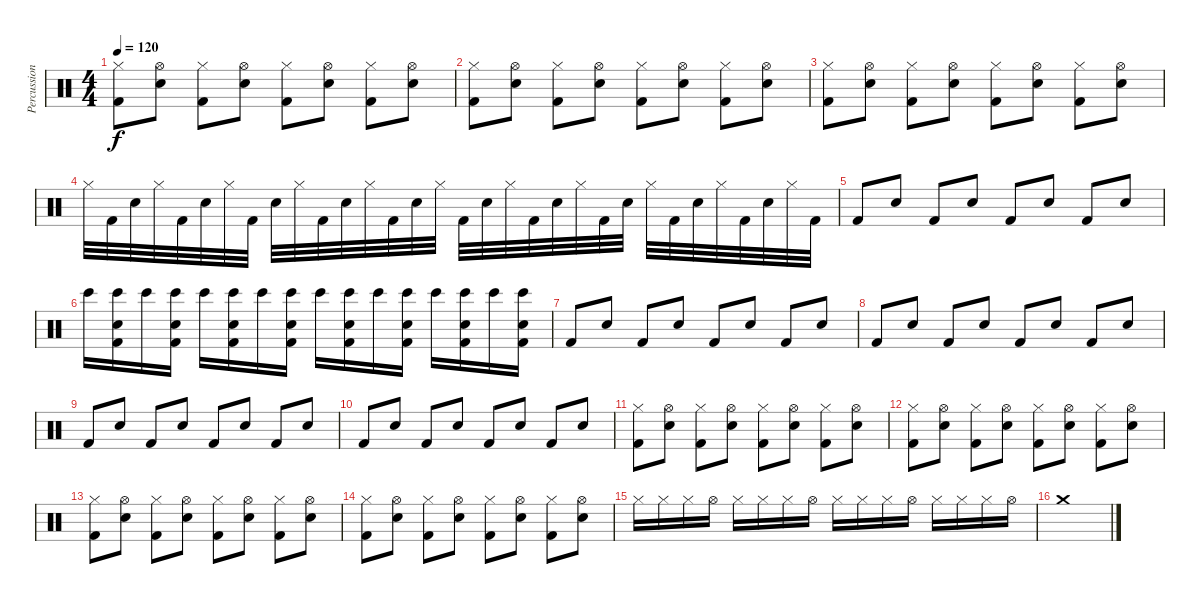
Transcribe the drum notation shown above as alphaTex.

\track ("Percussion" "Percussion") {instrument percussion}
\staff {score}
\articulation defaults
\ts (4 4)
\tempo 120
\clef neutral
\ks c
("Hi-Hat (closed)" "Kick (hit) 2").8{dy f} ("Hi-Hat (open)" "Snare (hit) 2").8 ("Hi-Hat (closed)" "Kick (hit) 2").8 ("Hi-Hat (open)" "Snare (hit) 2").8 ("Hi-Hat (closed)" "Kick (hit) 2").8 ("Hi-Hat (open)" "Snare (hit) 2").8 ("Hi-Hat (closed)" "Kick (hit) 2").8 ("Hi-Hat (open)" "Snare (hit) 2").8 |
("Hi-Hat (closed)" "Kick (hit) 2").8 ("Hi-Hat (open)" "Snare (hit) 2").8 ("Hi-Hat (closed)" "Kick (hit) 2").8 ("Hi-Hat (open)" "Snare (hit) 2").8 ("Hi-Hat (closed)" "Kick (hit) 2").8 ("Hi-Hat (open)" "Snare (hit) 2").8 ("Hi-Hat (closed)" "Kick (hit) 2").8 ("Hi-Hat (open)" "Snare (hit) 2").8 |
("Hi-Hat (closed)" "Kick (hit) 2").8 ("Hi-Hat (open)" "Snare (hit) 2").8 ("Hi-Hat (closed)" "Kick (hit) 2").8 ("Hi-Hat (open)" "Snare (hit) 2").8 ("Hi-Hat (closed)" "Kick (hit) 2").8 ("Hi-Hat (open)" "Snare (hit) 2").8 ("Hi-Hat (closed)" "Kick (hit) 2").8 ("Hi-Hat (open)" "Snare (hit) 2").8 |
"Hi-Hat (closed)".32 "Kick (hit) 2".32 "Snare (hit) 2".32 "Hi-Hat (closed)".32 "Kick (hit) 2".32 "Snare (hit) 2".32 "Hi-Hat (closed)".32 "Kick (hit) 2".32 "Snare (hit) 2".32 "Hi-Hat (closed)".32 "Kick (hit) 2".32 "Snare (hit) 2".32 "Hi-Hat (closed)".32 "Kick (hit) 2".32 "Snare (hit) 2".32 "Hi-Hat (closed)".32 "Kick (hit) 2".32 "Snare (hit) 2".32 "Hi-Hat (closed)".32 "Kick (hit) 2".32 "Snare (hit) 2".32 "Hi-Hat (closed)".32 "Kick (hit) 2".32 "Snare (hit) 2".32 "Hi-Hat (closed)".32 "Kick (hit) 2".32 "Snare (hit) 2".32 "Hi-Hat (closed)".32 "Kick (hit) 2".32 "Snare (hit) 2".32 "Hi-Hat (closed)".32 "Kick (hit) 2".32 |
"Kick (hit) 2".8 "Snare (hit) 2".8 "Kick (hit) 2".8 "Snare (hit) 2".8 "Kick (hit) 2".8 "Snare (hit) 2".8 "Kick (hit) 2".8 "Snare (hit) 2".8 |
"Bongo High (hit)".16 ("Snare (hit) 2" "Kick (hit) 2" "Bongo High (hit)").16 "Bongo High (hit)".16 ("Snare (hit) 2" "Kick (hit) 2" "Bongo High (hit)").16 "Bongo High (hit)".16 ("Snare (hit) 2" "Kick (hit) 2" "Bongo High (hit)").16 "Bongo High (hit)".16 ("Snare (hit) 2" "Kick (hit) 2" "Bongo High (hit)").16 "Bongo High (hit)".16 ("Snare (hit) 2" "Kick (hit) 2" "Bongo High (hit)").16 "Bongo High (hit)".16 ("Snare (hit) 2" "Kick (hit) 2" "Bongo High (hit)").16 "Bongo High (hit)".16 ("Snare (hit) 2" "Kick (hit) 2" "Bongo High (hit)").16 "Bongo High (hit)".16 ("Snare (hit) 2" "Kick (hit) 2" "Bongo High (hit)").16 |
"Kick (hit) 2".8 "Snare (hit) 2".8 "Kick (hit) 2".8 "Snare (hit) 2".8 "Kick (hit) 2".8 "Snare (hit) 2".8 "Kick (hit) 2".8 "Snare (hit) 2".8 |
"Kick (hit) 2".8 "Snare (hit) 2".8 "Kick (hit) 2".8 "Snare (hit) 2".8 "Kick (hit) 2".8 "Snare (hit) 2".8 "Kick (hit) 2".8 "Snare (hit) 2".8 |
"Kick (hit) 2".8 "Snare (hit) 2".8 "Kick (hit) 2".8 "Snare (hit) 2".8 "Kick (hit) 2".8 "Snare (hit) 2".8 "Kick (hit) 2".8 "Snare (hit) 2".8 |
"Kick (hit) 2".8 "Snare (hit) 2".8 "Kick (hit) 2".8 "Snare (hit) 2".8 "Kick (hit) 2".8 "Snare (hit) 2".8 "Kick (hit) 2".8 "Snare (hit) 2".8 |
("Hi-Hat (closed)" "Kick (hit) 2").8 ("Hi-Hat (open)" "Snare (hit) 2").8 ("Hi-Hat (closed)" "Kick (hit) 2").8 ("Hi-Hat (open)" "Snare (hit) 2").8 ("Hi-Hat (closed)" "Kick (hit) 2").8 ("Hi-Hat (open)" "Snare (hit) 2").8 ("Hi-Hat (closed)" "Kick (hit) 2").8 ("Hi-Hat (open)" "Snare (hit) 2").8 |
("Hi-Hat (closed)" "Kick (hit) 2").8 ("Hi-Hat (open)" "Snare (hit) 2").8 ("Hi-Hat (closed)" "Kick (hit) 2").8 ("Hi-Hat (open)" "Snare (hit) 2").8 ("Hi-Hat (closed)" "Kick (hit) 2").8 ("Hi-Hat (open)" "Snare (hit) 2").8 ("Hi-Hat (closed)" "Kick (hit) 2").8 ("Hi-Hat (open)" "Snare (hit) 2").8 |
("Hi-Hat (closed)" "Kick (hit) 2").8 ("Hi-Hat (open)" "Snare (hit) 2").8 ("Hi-Hat (closed)" "Kick (hit) 2").8 ("Hi-Hat (open)" "Snare (hit) 2").8 ("Hi-Hat (closed)" "Kick (hit) 2").8 ("Hi-Hat (open)" "Snare (hit) 2").8 ("Hi-Hat (closed)" "Kick (hit) 2").8 ("Hi-Hat (open)" "Snare (hit) 2").8 |
("Hi-Hat (closed)" "Kick (hit) 2").8 ("Hi-Hat (open)" "Snare (hit) 2").8 ("Hi-Hat (closed)" "Kick (hit) 2").8 ("Hi-Hat (open)" "Snare (hit) 2").8 ("Hi-Hat (closed)" "Kick (hit) 2").8 ("Hi-Hat (open)" "Snare (hit) 2").8 ("Hi-Hat (closed)" "Kick (hit) 2").8 ("Hi-Hat (open)" "Snare (hit) 2").8 |
"Hi-Hat (closed)".16 "Hi-Hat (closed)".16 "Hi-Hat (closed)".16 "Hi-Hat (open)".16 "Hi-Hat (closed)".16 "Hi-Hat (closed)".16 "Hi-Hat (closed)".16 "Hi-Hat (open)".16 "Hi-Hat (closed)".16 "Hi-Hat (closed)".16 "Hi-Hat (closed)".16 "Hi-Hat (open)".16 "Hi-Hat (closed)".16 "Hi-Hat (closed)".16 "Hi-Hat (closed)".16 "Hi-Hat (open)".16 |
"Crash medium (hit)".1
